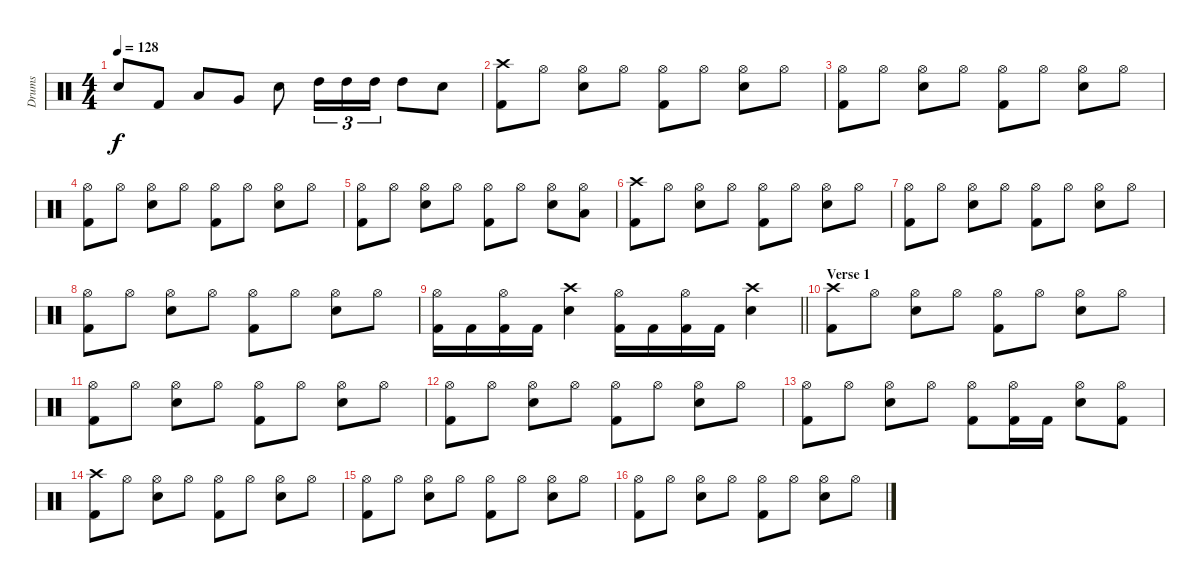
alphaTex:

\track ("Drums" "Drums") {instrument percussion}
\staff {score}
\articulation defaults
\ts (4 4)
\tempo 128
\clef neutral
\ks c "Snare (hit) 2".8{dy f} "Kick (hit) 2".8 "Low Tom (hit)".8 "Very Low Tom (hit)".8 "Snare (hit) 2".8 "High Tom (hit)".16{tu (3 2)} "High Tom (hit)".16{tu (3 2)} "High Tom (hit)".16{tu (3 2)} "High Tom (hit)".8 "Snare (hit) 2".8
|
("Crash high (hit)" "Kick (hit) 2").8 "Hi-Hat (open)".8 ("Hi-Hat (open)" "Snare (hit) 2").8 "Hi-Hat (open)".8 ("Hi-Hat (open)" "Kick (hit) 2").8 "Hi-Hat (open)".8 ("Hi-Hat (open)" "Snare (hit) 2").8 "Hi-Hat (open)".8 |
("Hi-Hat (open)" "Kick (hit) 2").8 "Hi-Hat (open)".8 ("Hi-Hat (open)" "Snare (hit) 2").8 "Hi-Hat (open)".8 ("Hi-Hat (open)" "Kick (hit) 2").8 "Hi-Hat (open)".8 ("Hi-Hat (open)" "Snare (hit) 2").8 "Hi-Hat (open)".8 |
("Hi-Hat (open)" "Kick (hit) 2").8 "Hi-Hat (open)".8 ("Hi-Hat (open)" "Snare (hit) 2").8 "Hi-Hat (open)".8 ("Hi-Hat (open)" "Kick (hit) 2").8 "Hi-Hat (open)".8 ("Hi-Hat (open)" "Snare (hit) 2").8 "Hi-Hat (open)".8 |
("Hi-Hat (open)" "Kick (hit) 2").8 "Hi-Hat (open)".8 ("Hi-Hat (open)" "Snare (hit) 2").8 "Hi-Hat (open)".8 ("Hi-Hat (open)" "Kick (hit) 2").8 "Hi-Hat (open)".8 ("Hi-Hat (open)" "Snare (hit) 2").8 ("Hi-Hat (open)" "Low Tom (hit)").8 |
("Crash high (hit)" "Kick (hit) 2").8 "Hi-Hat (open)".8 ("Hi-Hat (open)" "Snare (hit) 2").8 "Hi-Hat (open)".8 ("Hi-Hat (open)" "Kick (hit) 2").8 "Hi-Hat (open)".8 ("Hi-Hat (open)" "Snare (hit) 2").8 "Hi-Hat (open)".8 |
("Hi-Hat (open)" "Kick (hit) 2").8 "Hi-Hat (open)".8 ("Hi-Hat (open)" "Snare (hit) 2").8 "Hi-Hat (open)".8 ("Hi-Hat (open)" "Kick (hit) 2").8 "Hi-Hat (open)".8 ("Hi-Hat (open)" "Snare (hit) 2").8 "Hi-Hat (open)".8 |
("Hi-Hat (open)" "Kick (hit) 2").8 "Hi-Hat (open)".8 ("Hi-Hat (open)" "Snare (hit) 2").8 "Hi-Hat (open)".8 ("Hi-Hat (open)" "Kick (hit) 2").8 "Hi-Hat (open)".8 ("Hi-Hat (open)" "Snare (hit) 2").8 "Hi-Hat (open)".8 |
\barLineRight lightlight
("Hi-Hat (open)" "Kick (hit) 2").16 "Kick (hit) 2".16 ("Hi-Hat (open)" "Kick (hit) 2").16 "Kick (hit) 2".16 ("Crash high (hit)" "Snare (hit) 2").4 ("Hi-Hat (open)" "Kick (hit) 2").16 "Kick (hit) 2".16 ("Hi-Hat (open)" "Kick (hit) 2").16 "Kick (hit) 2".16 ("Crash high (hit)" "Snare (hit) 2").4 |
\section ("" "Verse 1")
("Crash high (hit)" "Kick (hit) 2").8 "Hi-Hat (open)".8 ("Hi-Hat (open)" "Snare (hit) 2").8 "Hi-Hat (open)".8 ("Hi-Hat (open)" "Kick (hit) 2").8 "Hi-Hat (open)".8 ("Hi-Hat (open)" "Snare (hit) 2").8 "Hi-Hat (open)".8 |
("Hi-Hat (open)" "Kick (hit) 2").8 "Hi-Hat (open)".8 ("Hi-Hat (open)" "Snare (hit) 2").8 "Hi-Hat (open)".8 ("Hi-Hat (open)" "Kick (hit) 2").8 "Hi-Hat (open)".8 ("Hi-Hat (open)" "Snare (hit) 2").8 "Hi-Hat (open)".8 |
("Hi-Hat (open)" "Kick (hit) 2").8 "Hi-Hat (open)".8 ("Hi-Hat (open)" "Snare (hit) 2").8 "Hi-Hat (open)".8 ("Hi-Hat (open)" "Kick (hit) 2").8 "Hi-Hat (open)".8 ("Hi-Hat (open)" "Snare (hit) 2").8 "Hi-Hat (open)".8 |
("Hi-Hat (open)" "Kick (hit) 2").8 "Hi-Hat (open)".8 ("Hi-Hat (open)" "Snare (hit) 2").8 "Hi-Hat (open)".8 ("Hi-Hat (open)" "Kick (hit) 2").8 ("Hi-Hat (open)" "Kick (hit) 2").16 "Kick (hit) 2".16 ("Hi-Hat (open)" "Snare (hit) 2").8 ("Hi-Hat (open)" "Kick (hit) 2").8 |
("Crash high (hit)" "Kick (hit) 2").8 "Hi-Hat (open)".8 ("Hi-Hat (open)" "Snare (hit) 2").8 "Hi-Hat (open)".8 ("Hi-Hat (open)" "Kick (hit) 2").8 "Hi-Hat (open)".8 ("Hi-Hat (open)" "Snare (hit) 2").8 "Hi-Hat (open)".8 |
("Hi-Hat (open)" "Kick (hit) 2").8 "Hi-Hat (open)".8 ("Hi-Hat (open)" "Snare (hit) 2").8 "Hi-Hat (open)".8 ("Hi-Hat (open)" "Kick (hit) 2").8 "Hi-Hat (open)".8 ("Hi-Hat (open)" "Snare (hit) 2").8 "Hi-Hat (open)".8 |
("Hi-Hat (open)" "Kick (hit) 2").8 "Hi-Hat (open)".8 ("Hi-Hat (open)" "Snare (hit) 2").8 "Hi-Hat (open)".8 ("Hi-Hat (open)" "Kick (hit) 2").8 "Hi-Hat (open)".8 ("Hi-Hat (open)" "Snare (hit) 2").8 "Hi-Hat (open)".8
